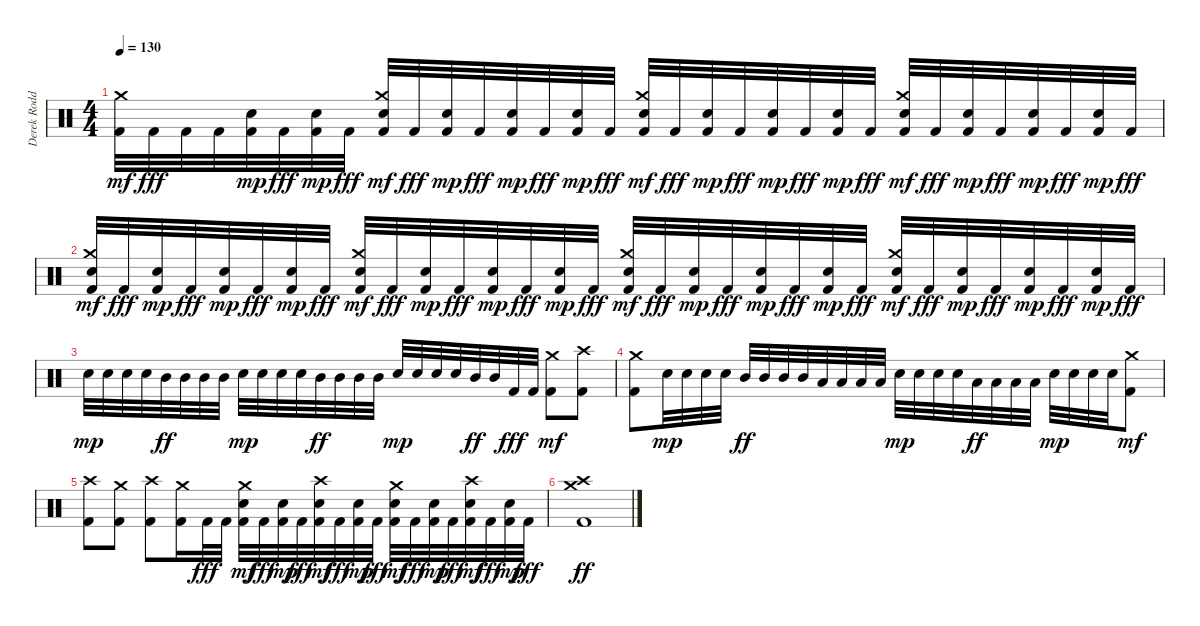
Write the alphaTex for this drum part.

\track ("Derek Roddy" "Derek Rodd") {instrument percussion}
\staff {score}
\articulation defaults
\ts (4 4)
\tempo 130
\clef neutral
\ks c
("Kick (hit) 2" "Crash medium (hit)").32{dy mf} "Kick (hit) 2".32{dy fff} "Kick (hit) 2".32 "Kick (hit) 2".32 ("Kick (hit) 2" "Electric Snare (hit)").32{dy mp} "Kick (hit) 2".32{dy fff} ("Kick (hit) 2" "Electric Snare (hit)").32{dy mp} "Kick (hit) 2".32{dy fff} ("Kick (hit) 2" "Electric Snare (hit)" "Crash medium (hit)").32{dy mf} "Kick (hit) 2".32{dy fff} ("Kick (hit) 2" "Electric Snare (hit)").32{dy mp} "Kick (hit) 2".32{dy fff} ("Kick (hit) 2" "Electric Snare (hit)").32{dy mp} "Kick (hit) 2".32{dy fff} ("Kick (hit) 2" "Electric Snare (hit)").32{dy mp} "Kick (hit) 2".32{dy fff} ("Kick (hit) 2" "Electric Snare (hit)" "Crash medium (hit)").32{dy mf} "Kick (hit) 2".32{dy fff} ("Kick (hit) 2" "Electric Snare (hit)").32{dy mp} "Kick (hit) 2".32{dy fff} ("Kick (hit) 2" "Electric Snare (hit)").32{dy mp} "Kick (hit) 2".32{dy fff} ("Kick (hit) 2" "Electric Snare (hit)").32{dy mp} "Kick (hit) 2".32{dy fff} ("Kick (hit) 2" "Electric Snare (hit)" "Crash medium (hit)").32{dy mf} "Kick (hit) 2".32{dy fff} ("Kick (hit) 2" "Electric Snare (hit)").32{dy mp} "Kick (hit) 2".32{dy fff} ("Kick (hit) 2" "Electric Snare (hit)").32{dy mp} "Kick (hit) 2".32{dy fff} ("Kick (hit) 2" "Electric Snare (hit)").32{dy mp} "Kick (hit) 2".32{dy fff} |
("Kick (hit) 2" "Electric Snare (hit)" "Crash medium (hit)").32{dy mf} "Kick (hit) 2".32{dy fff} ("Kick (hit) 2" "Electric Snare (hit)").32{dy mp} "Kick (hit) 2".32{dy fff} ("Kick (hit) 2" "Electric Snare (hit)").32{dy mp} "Kick (hit) 2".32{dy fff} ("Kick (hit) 2" "Electric Snare (hit)").32{dy mp} "Kick (hit) 2".32{dy fff} ("Kick (hit) 2" "Electric Snare (hit)" "Crash medium (hit)").32{dy mf} "Kick (hit) 2".32{dy fff} ("Kick (hit) 2" "Electric Snare (hit)").32{dy mp} "Kick (hit) 2".32{dy fff} ("Kick (hit) 2" "Electric Snare (hit)").32{dy mp} "Kick (hit) 2".32{dy fff} ("Kick (hit) 2" "Electric Snare (hit)").32{dy mp} "Kick (hit) 2".32{dy fff} ("Kick (hit) 2" "Electric Snare (hit)" "Crash medium (hit)").32{dy mf} "Kick (hit) 2".32{dy fff} ("Kick (hit) 2" "Electric Snare (hit)").32{dy mp} "Kick (hit) 2".32{dy fff} ("Kick (hit) 2" "Electric Snare (hit)").32{dy mp} "Kick (hit) 2".32{dy fff} ("Kick (hit) 2" "Electric Snare (hit)").32{dy mp} "Kick (hit) 2".32{dy fff} ("Kick (hit) 2" "Electric Snare (hit)" "Crash medium (hit)").32{dy mf} "Kick (hit) 2".32{dy fff} ("Kick (hit) 2" "Electric Snare (hit)").32{dy mp} "Kick (hit) 2".32{dy fff} ("Kick (hit) 2" "Electric Snare (hit)").32{dy mp} "Kick (hit) 2".32{dy fff} ("Kick (hit) 2" "Electric Snare (hit)").32{dy mp} "Kick (hit) 2".32{dy fff} |
"Electric Snare (hit)".32{dy mp} "Electric Snare (hit)".32 "Electric Snare (hit)".32 "Electric Snare (hit)".32 "Mid Tom (hit)".32{dy ff} "Mid Tom (hit)".32 "Mid Tom (hit)".32 "Mid Tom (hit)".32 "Electric Snare (hit)".32{dy mp} "Electric Snare (hit)".32 "Electric Snare (hit)".32 "Electric Snare (hit)".32 "Mid Tom (hit)".32{dy ff} "Mid Tom (hit)".32 "Mid Tom (hit)".32 "Mid Tom (hit)".32 "Electric Snare (hit)".32{dy mp} "Electric Snare (hit)".32 "Electric Snare (hit)".32 "Electric Snare (hit)".32 "Mid Tom (hit)".32{dy ff} "Mid Tom (hit)".32 "Kick (hit) 2".32{dy fff} "Kick (hit) 2".32 ("Kick (hit) 2" "Crash medium (hit)").8{dy mf} ("Kick (hit) 2" "Crash high (hit)").8 |
("Kick (hit) 2" "Crash medium (hit)").8 "Electric Snare (hit)".32{dy mp} "Electric Snare (hit)".32 "Electric Snare (hit)".32 "Electric Snare (hit)".32 "Mid Tom (hit)".32{dy ff} "Mid Tom (hit)".32 "Mid Tom (hit)".32 "Mid Tom (hit)".32 "Low Tom (hit)".32 "Low Tom (hit)".32 "Low Tom (hit)".32 "Low Tom (hit)".32 "Electric Snare (hit)".32{dy mp} "Electric Snare (hit)".32 "Electric Snare (hit)".32 "Electric Snare (hit)".32 "Low Tom (hit)".32{dy ff} "Low Tom (hit)".32 "Low Tom (hit)".32 "Low Tom (hit)".32 "Electric Snare (hit)".32{dy mp} "Electric Snare (hit)".32 "Electric Snare (hit)".32 "Electric Snare (hit)".32 ("Kick (hit) 2" "Crash medium (hit)").8{dy mf} |
("Kick (hit) 2" "Crash high (hit)").8 ("Kick (hit) 2" "Crash medium (hit)").8 ("Kick (hit) 2" "Crash high (hit)").8 ("Kick (hit) 2" "Crash medium (hit)").16 "Kick (hit) 2".32{dy fff} "Kick (hit) 2".32 ("Kick (hit) 2" "Electric Snare (hit)" "Crash medium (hit)").32{dy mf} "Kick (hit) 2".32{dy fff} ("Kick (hit) 2" "Electric Snare (hit)").32{dy mp} "Kick (hit) 2".32{dy fff} ("Kick (hit) 2" "Electric Snare (hit)" "Crash high (hit)").32{dy mf} "Kick (hit) 2".32{dy fff} ("Kick (hit) 2" "Electric Snare (hit)").32{dy mp} "Kick (hit) 2".32{dy fff} ("Kick (hit) 2" "Electric Snare (hit)" "Crash medium (hit)").32{dy mf} "Kick (hit) 2".32{dy fff} ("Kick (hit) 2" "Electric Snare (hit)").32{dy mp} "Kick (hit) 2".32{dy fff} ("Kick (hit) 2" "Electric Snare (hit)" "Crash high (hit)").32{dy mf} "Kick (hit) 2".32{dy fff} ("Kick (hit) 2" "Electric Snare (hit)").32{dy mp} "Kick (hit) 2".32{dy fff} |
("Kick (hit) 2" "Crash medium (hit)" "Crash high (hit)").1{dy ff}
